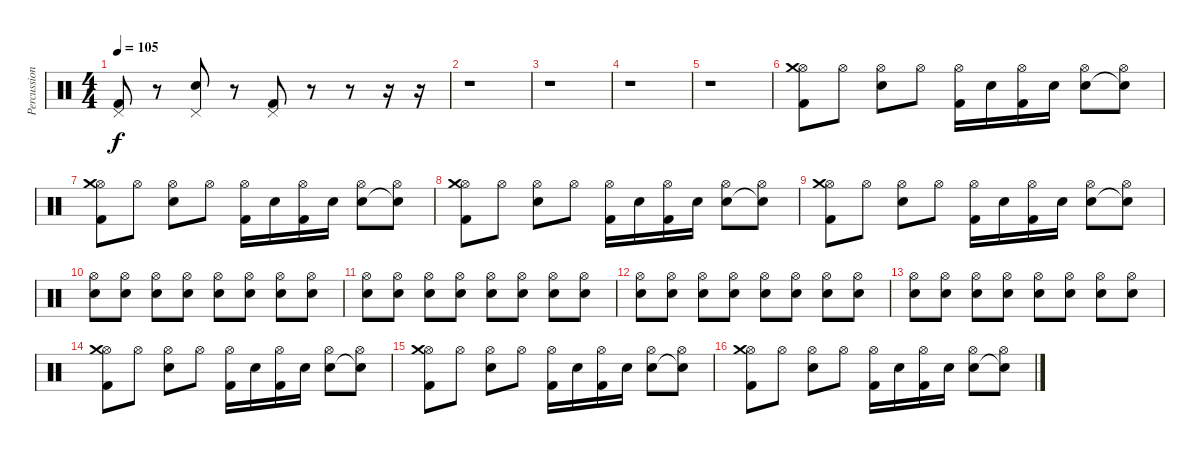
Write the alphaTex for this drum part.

\track ("Percussions" "Percussion") {instrument percussion}
\staff {score}
\articulation defaults
\ts (4 4)
\tempo 105
\clef neutral
\ks c
("Pedal Hi-Hat (hit)" "Kick (hit) 2").8{dy f} r.8 ("Pedal Hi-Hat (hit)" "Electric Snare (hit)").8 r.8 ("Pedal Hi-Hat (hit)" "Kick (hit) 2").8 r.8 r.8 r.16 r.16 |
r.1 |
r.1 |
r.1 |
r.1 |
("Hi-Hat (open)" "Kick (hit) 2" "Crash medium (hit)").8 "Hi-Hat (open)".8 ("Hi-Hat (open)" "Electric Snare (hit)").8 "Hi-Hat (open)".8 ("Hi-Hat (open)" "Kick (hit) 2").16 "Electric Snare (hit)".16 ("Hi-Hat (open)" "Kick (hit) 2").16 "Electric Snare (hit)".16 ("Hi-Hat (open)" "Electric Snare (hit)").8 ("Hi-Hat (open)" "Snare (hit)"{t}).8 |
("Hi-Hat (open)" "Kick (hit) 2" "Crash medium (hit)").8 "Hi-Hat (open)".8 ("Hi-Hat (open)" "Electric Snare (hit)").8 "Hi-Hat (open)".8 ("Hi-Hat (open)" "Kick (hit) 2").16 "Electric Snare (hit)".16 ("Hi-Hat (open)" "Kick (hit) 2").16 "Electric Snare (hit)".16 ("Hi-Hat (open)" "Electric Snare (hit)").8 ("Hi-Hat (open)" "Snare (hit)"{t}).8 |
("Hi-Hat (open)" "Kick (hit) 2" "Crash medium (hit)").8 "Hi-Hat (open)".8 ("Hi-Hat (open)" "Electric Snare (hit)").8 "Hi-Hat (open)".8 ("Hi-Hat (open)" "Kick (hit) 2").16 "Electric Snare (hit)".16 ("Hi-Hat (open)" "Kick (hit) 2").16 "Electric Snare (hit)".16 ("Hi-Hat (open)" "Electric Snare (hit)").8 ("Hi-Hat (open)" "Snare (hit)"{t}).8 |
("Hi-Hat (open)" "Kick (hit) 2" "Crash medium (hit)").8 "Hi-Hat (open)".8 ("Hi-Hat (open)" "Electric Snare (hit)").8 "Hi-Hat (open)".8 ("Hi-Hat (open)" "Kick (hit) 2").16 "Electric Snare (hit)".16 ("Hi-Hat (open)" "Kick (hit) 2").16 "Electric Snare (hit)".16 ("Hi-Hat (open)" "Electric Snare (hit)").8 ("Hi-Hat (open)" "Snare (hit)"{t}).8 |
("Hi-Hat (open)" "Electric Snare (hit)").8 ("Hi-Hat (open)" "Electric Snare (hit)").8 ("Hi-Hat (open)" "Electric Snare (hit)").8 ("Hi-Hat (open)" "Electric Snare (hit)").8 ("Hi-Hat (open)" "Electric Snare (hit)").8 ("Hi-Hat (open)" "Electric Snare (hit)").8 ("Hi-Hat (open)" "Electric Snare (hit)").8 ("Hi-Hat (open)" "Electric Snare (hit)").8 |
("Hi-Hat (open)" "Electric Snare (hit)").8 ("Hi-Hat (open)" "Electric Snare (hit)").8 ("Hi-Hat (open)" "Electric Snare (hit)").8 ("Hi-Hat (open)" "Electric Snare (hit)").8 ("Hi-Hat (open)" "Electric Snare (hit)").8 ("Hi-Hat (open)" "Electric Snare (hit)").8 ("Hi-Hat (open)" "Electric Snare (hit)").8 ("Hi-Hat (open)" "Electric Snare (hit)").8 |
("Hi-Hat (open)" "Electric Snare (hit)").8 ("Hi-Hat (open)" "Electric Snare (hit)").8 ("Hi-Hat (open)" "Electric Snare (hit)").8 ("Hi-Hat (open)" "Electric Snare (hit)").8 ("Hi-Hat (open)" "Electric Snare (hit)").8 ("Hi-Hat (open)" "Electric Snare (hit)").8 ("Hi-Hat (open)" "Electric Snare (hit)").8 ("Hi-Hat (open)" "Electric Snare (hit)").8 |
("Hi-Hat (open)" "Electric Snare (hit)").8 ("Hi-Hat (open)" "Electric Snare (hit)").8 ("Hi-Hat (open)" "Electric Snare (hit)").8 ("Hi-Hat (open)" "Electric Snare (hit)").8 ("Hi-Hat (open)" "Electric Snare (hit)").8 ("Hi-Hat (open)" "Electric Snare (hit)").8 ("Hi-Hat (open)" "Electric Snare (hit)").8 ("Hi-Hat (open)" "Electric Snare (hit)").8 |
("Hi-Hat (open)" "Kick (hit) 2" "Crash medium (hit)").8 "Hi-Hat (open)".8 ("Hi-Hat (open)" "Electric Snare (hit)").8 "Hi-Hat (open)".8 ("Hi-Hat (open)" "Kick (hit) 2").16 "Electric Snare (hit)".16 ("Hi-Hat (open)" "Kick (hit) 2").16 "Electric Snare (hit)".16 ("Hi-Hat (open)" "Electric Snare (hit)").8 ("Hi-Hat (open)" "Snare (hit)"{t}).8 |
("Hi-Hat (open)" "Kick (hit) 2" "Crash medium (hit)").8 "Hi-Hat (open)".8 ("Hi-Hat (open)" "Electric Snare (hit)").8 "Hi-Hat (open)".8 ("Hi-Hat (open)" "Kick (hit) 2").16 "Electric Snare (hit)".16 ("Hi-Hat (open)" "Kick (hit) 2").16 "Electric Snare (hit)".16 ("Hi-Hat (open)" "Electric Snare (hit)").8 ("Hi-Hat (open)" "Snare (hit)"{t}).8 |
("Hi-Hat (open)" "Kick (hit) 2" "Crash medium (hit)").8 "Hi-Hat (open)".8 ("Hi-Hat (open)" "Electric Snare (hit)").8 "Hi-Hat (open)".8 ("Hi-Hat (open)" "Kick (hit) 2").16 "Electric Snare (hit)".16 ("Hi-Hat (open)" "Kick (hit) 2").16 "Electric Snare (hit)".16 ("Hi-Hat (open)" "Electric Snare (hit)").8 ("Hi-Hat (open)" "Snare (hit)"{t}).8
